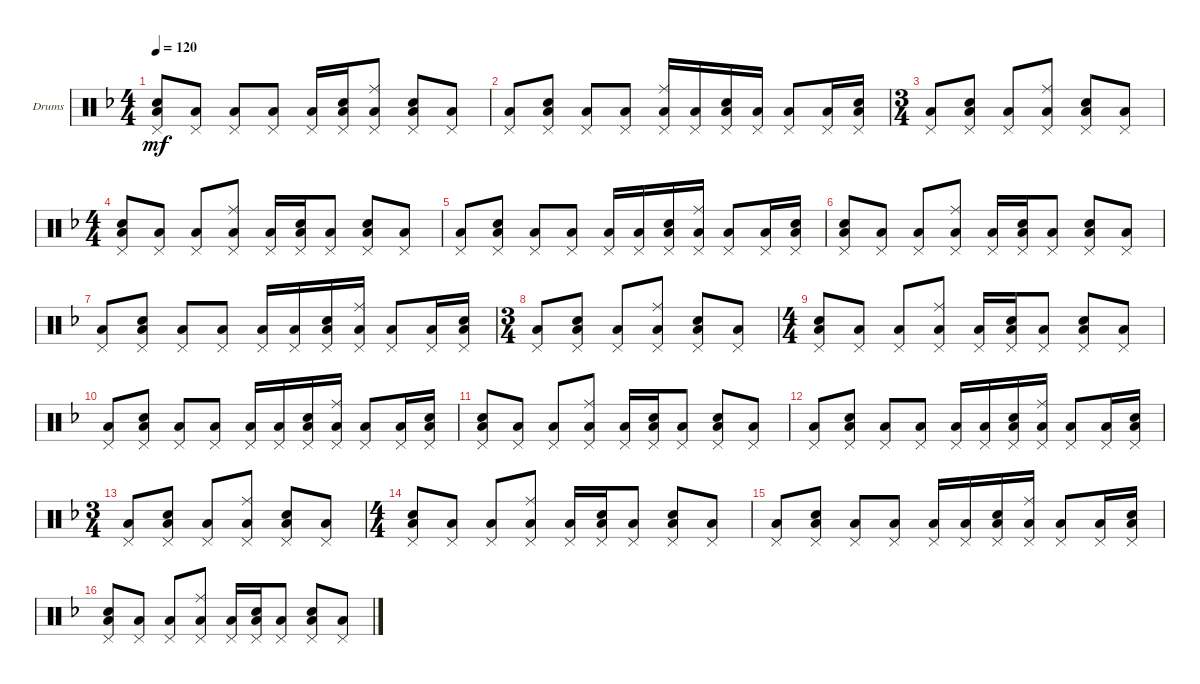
\defaultSystemsLayout 4
\bracketExtendMode groupsimilarinstruments
\firstSystemTrackNameOrientation horizontal
\otherSystemsTrackNameOrientation horizontal
\track ("Drumkit" "Drums") {instrument percussion}
\staff {score}
\articulation defaults
\ts (4 4)
\tempo 120
\clef neutral
\ks f
("Pedal Hi-Hat (hit)" "Low Tom (hit)" "Snare (hit) 2").8{dy mf} ("Pedal Hi-Hat (hit)" "Low Tom (hit)").8 ("Pedal Hi-Hat (hit)" "Low Tom (hit)").8 ("Pedal Hi-Hat (hit)" "Low Tom (hit)").8 ("Pedal Hi-Hat (hit)" "Low Tom (hit)").16 ("Pedal Hi-Hat (hit)" "Low Tom (hit)" "Snare (hit) 2").16 ("Pedal Hi-Hat (hit)" "Low Tom (hit)" "Ride (middle)").8 ("Pedal Hi-Hat (hit)" "Low Tom (hit)" "Snare (hit) 2").8 ("Pedal Hi-Hat (hit)" "Low Tom (hit)").8 |
("Pedal Hi-Hat (hit)" "Low Tom (hit)").8 ("Pedal Hi-Hat (hit)" "Low Tom (hit)" "Snare (hit) 2").8 ("Pedal Hi-Hat (hit)" "Low Tom (hit)").8 ("Pedal Hi-Hat (hit)" "Low Tom (hit)").8 ("Pedal Hi-Hat (hit)" "Low Tom (hit)" "Ride (middle)").16 ("Pedal Hi-Hat (hit)" "Low Tom (hit)").16 ("Pedal Hi-Hat (hit)" "Low Tom (hit)" "Snare (hit) 2").16 ("Pedal Hi-Hat (hit)" "Low Tom (hit)").16 ("Pedal Hi-Hat (hit)" "Low Tom (hit)").8 ("Pedal Hi-Hat (hit)" "Low Tom (hit)").16 ("Pedal Hi-Hat (hit)" "Low Tom (hit)" "Snare (hit) 2").16 |
\ts (3 4)
("Pedal Hi-Hat (hit)" "Low Tom (hit)").8 ("Pedal Hi-Hat (hit)" "Low Tom (hit)" "Snare (hit) 2").8 ("Pedal Hi-Hat (hit)" "Low Tom (hit)").8 ("Pedal Hi-Hat (hit)" "Low Tom (hit)" "Ride (middle)").8 ("Pedal Hi-Hat (hit)" "Low Tom (hit)" "Snare (hit) 2").8 ("Pedal Hi-Hat (hit)" "Low Tom (hit)").8 |
\ts (4 4)
("Pedal Hi-Hat (hit)" "Low Tom (hit)" "Snare (hit) 2").8 ("Pedal Hi-Hat (hit)" "Low Tom (hit)").8 ("Pedal Hi-Hat (hit)" "Low Tom (hit)").8 ("Pedal Hi-Hat (hit)" "Low Tom (hit)" "Ride (middle)").8 ("Pedal Hi-Hat (hit)" "Low Tom (hit)").16 ("Pedal Hi-Hat (hit)" "Low Tom (hit)" "Snare (hit) 2").16 ("Pedal Hi-Hat (hit)" "Low Tom (hit)").8 ("Pedal Hi-Hat (hit)" "Low Tom (hit)" "Snare (hit) 2").8 ("Pedal Hi-Hat (hit)" "Low Tom (hit)").8 |
("Pedal Hi-Hat (hit)" "Low Tom (hit)").8 ("Pedal Hi-Hat (hit)" "Low Tom (hit)" "Snare (hit) 2").8 ("Pedal Hi-Hat (hit)" "Low Tom (hit)").8 ("Pedal Hi-Hat (hit)" "Low Tom (hit)").8 ("Pedal Hi-Hat (hit)" "Low Tom (hit)").16 ("Pedal Hi-Hat (hit)" "Low Tom (hit)").16 ("Pedal Hi-Hat (hit)" "Low Tom (hit)" "Snare (hit) 2").16 ("Pedal Hi-Hat (hit)" "Low Tom (hit)" "Ride (middle)").16 ("Pedal Hi-Hat (hit)" "Low Tom (hit)").8 ("Pedal Hi-Hat (hit)" "Low Tom (hit)").16 ("Pedal Hi-Hat (hit)" "Low Tom (hit)" "Snare (hit) 2").16 |
("Pedal Hi-Hat (hit)" "Low Tom (hit)" "Snare (hit) 2").8 ("Pedal Hi-Hat (hit)" "Low Tom (hit)").8 ("Pedal Hi-Hat (hit)" "Low Tom (hit)").8 ("Pedal Hi-Hat (hit)" "Low Tom (hit)" "Ride (middle)").8 ("Pedal Hi-Hat (hit)" "Low Tom (hit)").16 ("Pedal Hi-Hat (hit)" "Low Tom (hit)" "Snare (hit) 2").16 ("Pedal Hi-Hat (hit)" "Low Tom (hit)").8 ("Pedal Hi-Hat (hit)" "Low Tom (hit)" "Snare (hit) 2").8 ("Pedal Hi-Hat (hit)" "Low Tom (hit)").8 |
("Pedal Hi-Hat (hit)" "Low Tom (hit)").8 ("Pedal Hi-Hat (hit)" "Low Tom (hit)" "Snare (hit) 2").8 ("Pedal Hi-Hat (hit)" "Low Tom (hit)").8 ("Pedal Hi-Hat (hit)" "Low Tom (hit)").8 ("Pedal Hi-Hat (hit)" "Low Tom (hit)").16 ("Pedal Hi-Hat (hit)" "Low Tom (hit)").16 ("Pedal Hi-Hat (hit)" "Low Tom (hit)" "Snare (hit) 2").16 ("Pedal Hi-Hat (hit)" "Low Tom (hit)" "Ride (middle)").16 ("Pedal Hi-Hat (hit)" "Low Tom (hit)").8 ("Pedal Hi-Hat (hit)" "Low Tom (hit)").16 ("Pedal Hi-Hat (hit)" "Low Tom (hit)" "Snare (hit) 2").16 |
\ts (3 4)
("Pedal Hi-Hat (hit)" "Low Tom (hit)").8 ("Pedal Hi-Hat (hit)" "Low Tom (hit)" "Snare (hit) 2").8 ("Pedal Hi-Hat (hit)" "Low Tom (hit)").8 ("Pedal Hi-Hat (hit)" "Low Tom (hit)" "Ride (middle)").8 ("Pedal Hi-Hat (hit)" "Low Tom (hit)" "Snare (hit) 2").8 ("Pedal Hi-Hat (hit)" "Low Tom (hit)").8 |
\ts (4 4)
("Pedal Hi-Hat (hit)" "Low Tom (hit)" "Snare (hit) 2").8 ("Pedal Hi-Hat (hit)" "Low Tom (hit)").8 ("Pedal Hi-Hat (hit)" "Low Tom (hit)").8 ("Pedal Hi-Hat (hit)" "Low Tom (hit)" "Ride (middle)").8 ("Pedal Hi-Hat (hit)" "Low Tom (hit)").16 ("Pedal Hi-Hat (hit)" "Low Tom (hit)" "Snare (hit) 2").16 ("Pedal Hi-Hat (hit)" "Low Tom (hit)").8 ("Pedal Hi-Hat (hit)" "Low Tom (hit)" "Snare (hit) 2").8 ("Pedal Hi-Hat (hit)" "Low Tom (hit)").8 |
("Pedal Hi-Hat (hit)" "Low Tom (hit)").8 ("Pedal Hi-Hat (hit)" "Low Tom (hit)" "Snare (hit) 2").8 ("Pedal Hi-Hat (hit)" "Low Tom (hit)").8 ("Pedal Hi-Hat (hit)" "Low Tom (hit)").8 ("Pedal Hi-Hat (hit)" "Low Tom (hit)").16 ("Pedal Hi-Hat (hit)" "Low Tom (hit)").16 ("Pedal Hi-Hat (hit)" "Low Tom (hit)" "Snare (hit) 2").16 ("Pedal Hi-Hat (hit)" "Low Tom (hit)" "Ride (middle)").16 ("Pedal Hi-Hat (hit)" "Low Tom (hit)").8 ("Pedal Hi-Hat (hit)" "Low Tom (hit)").16 ("Pedal Hi-Hat (hit)" "Low Tom (hit)" "Snare (hit) 2").16 |
("Pedal Hi-Hat (hit)" "Low Tom (hit)" "Snare (hit) 2").8 ("Pedal Hi-Hat (hit)" "Low Tom (hit)").8 ("Pedal Hi-Hat (hit)" "Low Tom (hit)").8 ("Pedal Hi-Hat (hit)" "Low Tom (hit)" "Ride (middle)").8 ("Pedal Hi-Hat (hit)" "Low Tom (hit)").16 ("Pedal Hi-Hat (hit)" "Low Tom (hit)" "Snare (hit) 2").16 ("Pedal Hi-Hat (hit)" "Low Tom (hit)").8 ("Pedal Hi-Hat (hit)" "Low Tom (hit)" "Snare (hit) 2").8 ("Pedal Hi-Hat (hit)" "Low Tom (hit)").8 |
("Pedal Hi-Hat (hit)" "Low Tom (hit)").8 ("Pedal Hi-Hat (hit)" "Low Tom (hit)" "Snare (hit) 2").8 ("Pedal Hi-Hat (hit)" "Low Tom (hit)").8 ("Pedal Hi-Hat (hit)" "Low Tom (hit)").8 ("Pedal Hi-Hat (hit)" "Low Tom (hit)").16 ("Pedal Hi-Hat (hit)" "Low Tom (hit)").16 ("Pedal Hi-Hat (hit)" "Low Tom (hit)" "Snare (hit) 2").16 ("Pedal Hi-Hat (hit)" "Low Tom (hit)" "Ride (middle)").16 ("Pedal Hi-Hat (hit)" "Low Tom (hit)").8 ("Pedal Hi-Hat (hit)" "Low Tom (hit)").16 ("Pedal Hi-Hat (hit)" "Low Tom (hit)" "Snare (hit) 2").16 |
\ts (3 4)
("Pedal Hi-Hat (hit)" "Low Tom (hit)").8 ("Pedal Hi-Hat (hit)" "Low Tom (hit)" "Snare (hit) 2").8 ("Pedal Hi-Hat (hit)" "Low Tom (hit)").8 ("Pedal Hi-Hat (hit)" "Low Tom (hit)" "Ride (middle)").8 ("Pedal Hi-Hat (hit)" "Low Tom (hit)" "Snare (hit) 2").8 ("Pedal Hi-Hat (hit)" "Low Tom (hit)").8 |
\ts (4 4)
("Pedal Hi-Hat (hit)" "Low Tom (hit)" "Snare (hit) 2").8 ("Pedal Hi-Hat (hit)" "Low Tom (hit)").8 ("Pedal Hi-Hat (hit)" "Low Tom (hit)").8 ("Pedal Hi-Hat (hit)" "Low Tom (hit)" "Ride (middle)").8 ("Pedal Hi-Hat (hit)" "Low Tom (hit)").16 ("Pedal Hi-Hat (hit)" "Low Tom (hit)" "Snare (hit) 2").16 ("Pedal Hi-Hat (hit)" "Low Tom (hit)").8 ("Pedal Hi-Hat (hit)" "Low Tom (hit)" "Snare (hit) 2").8 ("Pedal Hi-Hat (hit)" "Low Tom (hit)").8 |
("Pedal Hi-Hat (hit)" "Low Tom (hit)").8 ("Pedal Hi-Hat (hit)" "Low Tom (hit)" "Snare (hit) 2").8 ("Pedal Hi-Hat (hit)" "Low Tom (hit)").8 ("Pedal Hi-Hat (hit)" "Low Tom (hit)").8 ("Pedal Hi-Hat (hit)" "Low Tom (hit)").16 ("Pedal Hi-Hat (hit)" "Low Tom (hit)").16 ("Pedal Hi-Hat (hit)" "Low Tom (hit)" "Snare (hit) 2").16 ("Pedal Hi-Hat (hit)" "Low Tom (hit)" "Ride (middle)").16 ("Pedal Hi-Hat (hit)" "Low Tom (hit)").8 ("Pedal Hi-Hat (hit)" "Low Tom (hit)").16 ("Pedal Hi-Hat (hit)" "Low Tom (hit)" "Snare (hit) 2").16 |
("Pedal Hi-Hat (hit)" "Low Tom (hit)" "Snare (hit) 2").8 ("Pedal Hi-Hat (hit)" "Low Tom (hit)").8 ("Pedal Hi-Hat (hit)" "Low Tom (hit)").8 ("Pedal Hi-Hat (hit)" "Low Tom (hit)" "Ride (middle)").8 ("Pedal Hi-Hat (hit)" "Low Tom (hit)").16 ("Pedal Hi-Hat (hit)" "Low Tom (hit)" "Snare (hit) 2").16 ("Pedal Hi-Hat (hit)" "Low Tom (hit)").8 ("Pedal Hi-Hat (hit)" "Low Tom (hit)" "Snare (hit) 2").8 ("Pedal Hi-Hat (hit)" "Low Tom (hit)").8
